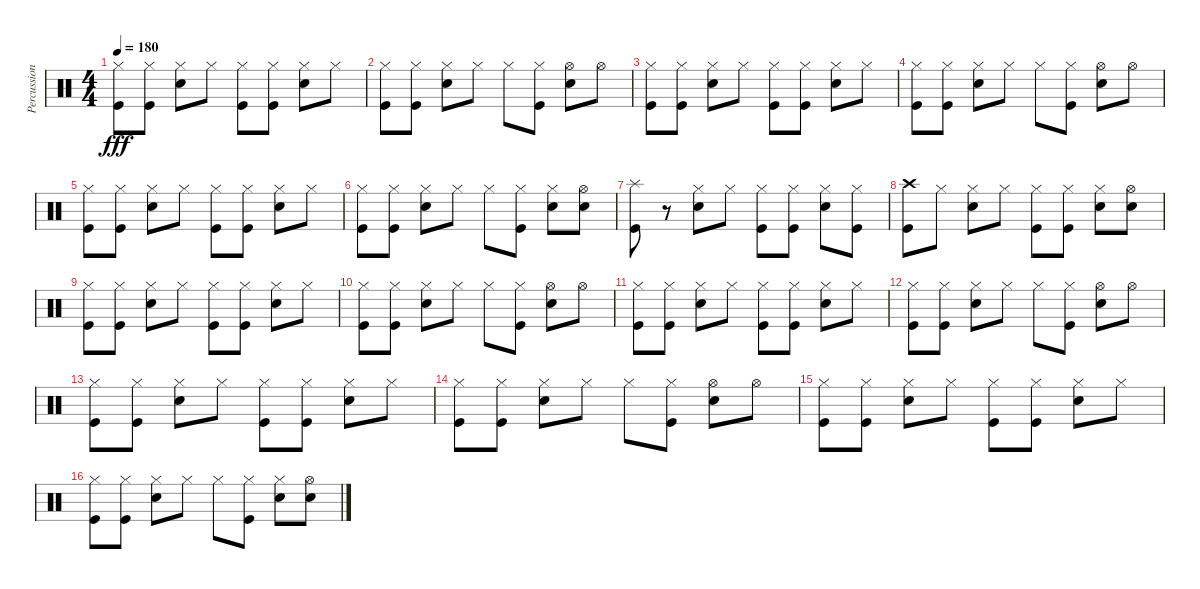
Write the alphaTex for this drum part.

\track ("Percussion" "Percussion") {instrument percussion}
\staff {score}
\articulation defaults
\ts (4 4)
\tempo 180
\clef neutral
\ks c
("Hi-Hat (closed)" "Kick (hit)").8{dy fff} ("Hi-Hat (closed)" "Kick (hit)").8 ("Hi-Hat (closed)" "Snare (hit) 2").8 "Hi-Hat (closed)".8 ("Hi-Hat (closed)" "Kick (hit)").8 ("Hi-Hat (closed)" "Kick (hit)").8 ("Hi-Hat (closed)" "Snare (hit) 2").8 "Hi-Hat (closed)".8 |
("Hi-Hat (closed)" "Kick (hit)").8 ("Hi-Hat (closed)" "Kick (hit)").8 ("Hi-Hat (closed)" "Snare (hit) 2").8 "Hi-Hat (closed)".8 "Hi-Hat (closed)".8 ("Hi-Hat (closed)" "Kick (hit)").8 ("Hi-Hat (open)" "Snare (hit) 2").8 "Hi-Hat (open)".8 |
("Hi-Hat (closed)" "Kick (hit)").8 ("Hi-Hat (closed)" "Kick (hit)").8 ("Hi-Hat (closed)" "Snare (hit) 2").8 "Hi-Hat (closed)".8 ("Hi-Hat (closed)" "Kick (hit)").8 ("Hi-Hat (closed)" "Kick (hit)").8 ("Hi-Hat (closed)" "Snare (hit) 2").8 "Hi-Hat (closed)".8 |
("Hi-Hat (closed)" "Kick (hit)").8 ("Hi-Hat (closed)" "Kick (hit)").8 ("Hi-Hat (closed)" "Snare (hit) 2").8 "Hi-Hat (closed)".8 "Hi-Hat (closed)".8 ("Hi-Hat (closed)" "Kick (hit)").8 ("Hi-Hat (open)" "Snare (hit) 2").8 "Hi-Hat (open)".8 |
("Hi-Hat (closed)" "Kick (hit)").8 ("Hi-Hat (closed)" "Kick (hit)").8 ("Hi-Hat (closed)" "Snare (hit) 2").8 "Hi-Hat (closed)".8 ("Hi-Hat (closed)" "Kick (hit)").8 ("Hi-Hat (closed)" "Kick (hit)").8 ("Hi-Hat (closed)" "Snare (hit) 2").8 "Hi-Hat (closed)".8 |
("Hi-Hat (closed)" "Kick (hit)").8 ("Hi-Hat (closed)" "Kick (hit)").8 ("Hi-Hat (closed)" "Snare (hit) 2").8 "Hi-Hat (closed)".8 "Hi-Hat (closed)".8 ("Hi-Hat (closed)" "Kick (hit)").8 ("Hi-Hat (closed)" "Snare (hit) 2").8 ("Hi-Hat (open)" "Snare (hit) 2").8 |
("Splash (hit)" "Kick (hit)").8 r.8 ("Hi-Hat (closed)" "Snare (hit) 2").8 "Hi-Hat (closed)".8 ("Hi-Hat (closed)" "Kick (hit)").8 ("Hi-Hat (closed)" "Kick (hit)").8 ("Hi-Hat (closed)" "Snare (hit) 2").8 ("Hi-Hat (closed)" "Kick (hit)").8 |
("Crash high (hit)" "Kick (hit)").8 "Hi-Hat (closed)".8 ("Hi-Hat (closed)" "Snare (hit) 2").8 "Hi-Hat (closed)".8 ("Hi-Hat (closed)" "Kick (hit)").8 ("Hi-Hat (closed)" "Kick (hit)").8 ("Hi-Hat (closed)" "Snare (hit) 2").8 ("Hi-Hat (open)" "Snare (hit) 2").8 |
("Hi-Hat (closed)" "Kick (hit)").8 ("Hi-Hat (closed)" "Kick (hit)").8 ("Hi-Hat (closed)" "Snare (hit) 2").8 "Hi-Hat (closed)".8 ("Hi-Hat (closed)" "Kick (hit)").8 ("Hi-Hat (closed)" "Kick (hit)").8 ("Hi-Hat (closed)" "Snare (hit) 2").8 "Hi-Hat (closed)".8 |
("Hi-Hat (closed)" "Kick (hit)").8 ("Hi-Hat (closed)" "Kick (hit)").8 ("Hi-Hat (closed)" "Snare (hit) 2").8 "Hi-Hat (closed)".8 "Hi-Hat (closed)".8 ("Hi-Hat (closed)" "Kick (hit)").8 ("Hi-Hat (open)" "Snare (hit) 2").8 "Hi-Hat (open)".8 |
("Hi-Hat (closed)" "Kick (hit)").8 ("Hi-Hat (closed)" "Kick (hit)").8 ("Hi-Hat (closed)" "Snare (hit) 2").8 "Hi-Hat (closed)".8 ("Hi-Hat (closed)" "Kick (hit)").8 ("Hi-Hat (closed)" "Kick (hit)").8 ("Hi-Hat (closed)" "Snare (hit) 2").8 "Hi-Hat (closed)".8 |
("Hi-Hat (closed)" "Kick (hit)").8 ("Hi-Hat (closed)" "Kick (hit)").8 ("Hi-Hat (closed)" "Snare (hit) 2").8 "Hi-Hat (closed)".8 "Hi-Hat (closed)".8 ("Hi-Hat (closed)" "Kick (hit)").8 ("Hi-Hat (open)" "Snare (hit) 2").8 "Hi-Hat (open)".8 |
("Hi-Hat (closed)" "Kick (hit)").8 ("Hi-Hat (closed)" "Kick (hit)").8 ("Hi-Hat (closed)" "Snare (hit) 2").8 "Hi-Hat (closed)".8 ("Hi-Hat (closed)" "Kick (hit)").8 ("Hi-Hat (closed)" "Kick (hit)").8 ("Hi-Hat (closed)" "Snare (hit) 2").8 "Hi-Hat (closed)".8 |
("Hi-Hat (closed)" "Kick (hit)").8 ("Hi-Hat (closed)" "Kick (hit)").8 ("Hi-Hat (closed)" "Snare (hit) 2").8 "Hi-Hat (closed)".8 "Hi-Hat (closed)".8 ("Hi-Hat (closed)" "Kick (hit)").8 ("Hi-Hat (open)" "Snare (hit) 2").8 "Hi-Hat (open)".8 |
("Hi-Hat (closed)" "Kick (hit)").8 ("Hi-Hat (closed)" "Kick (hit)").8 ("Hi-Hat (closed)" "Snare (hit) 2").8 "Hi-Hat (closed)".8 ("Hi-Hat (closed)" "Kick (hit)").8 ("Hi-Hat (closed)" "Kick (hit)").8 ("Hi-Hat (closed)" "Snare (hit) 2").8 "Hi-Hat (closed)".8 |
("Hi-Hat (closed)" "Kick (hit)").8 ("Hi-Hat (closed)" "Kick (hit)").8 ("Hi-Hat (closed)" "Snare (hit) 2").8 "Hi-Hat (closed)".8 "Hi-Hat (closed)".8 ("Hi-Hat (closed)" "Kick (hit)").8 ("Hi-Hat (closed)" "Snare (hit) 2").8 ("Hi-Hat (open)" "Snare (hit) 2").8
